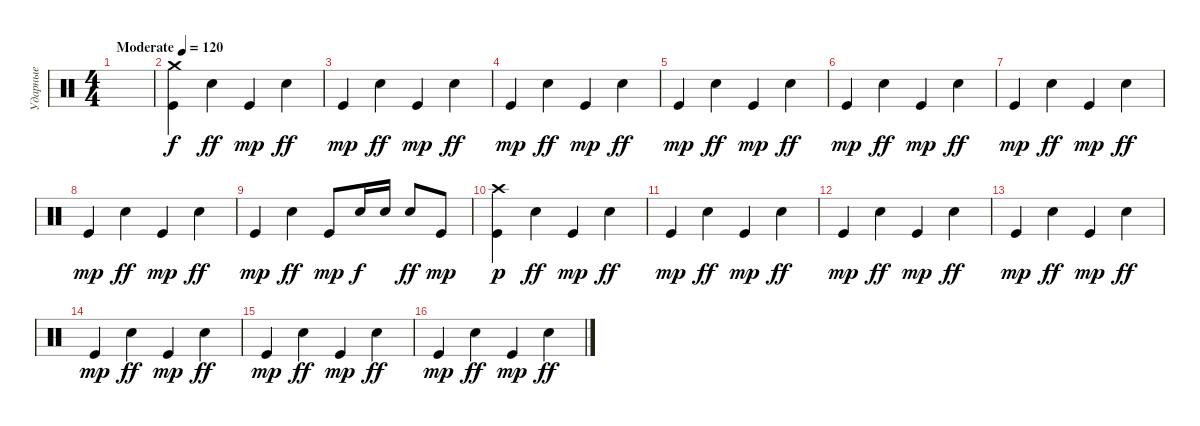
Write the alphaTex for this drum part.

\track ("Ударные" "Ударные") {instrument percussion}
\staff {score}
\articulation defaults
\ts (4 4)
\tempo (120 "Moderate")
\clef neutral
\ks c
|
("Kick (hit)" "Crash medium (hit)").4 "Snare (hit) 2".4{dy ff} "Kick (hit)".4{dy mp} "Snare (hit) 2".4{dy ff} |
"Kick (hit)".4{dy mp} "Snare (hit) 2".4{dy ff} "Kick (hit)".4{dy mp} "Snare (hit) 2".4{dy ff} |
"Kick (hit)".4{dy mp} "Snare (hit) 2".4{dy ff} "Kick (hit)".4{dy mp} "Snare (hit) 2".4{dy ff} |
"Kick (hit)".4{dy mp} "Snare (hit) 2".4{dy ff} "Kick (hit)".4{dy mp} "Snare (hit) 2".4{dy ff} |
"Kick (hit)".4{dy mp} "Snare (hit) 2".4{dy ff} "Kick (hit)".4{dy mp} "Snare (hit) 2".4{dy ff} |
"Kick (hit)".4{dy mp} "Snare (hit) 2".4{dy ff} "Kick (hit)".4{dy mp} "Snare (hit) 2".4{dy ff} |
"Kick (hit)".4{dy mp} "Snare (hit) 2".4{dy ff} "Kick (hit)".4{dy mp} "Snare (hit) 2".4{dy ff} |
"Kick (hit)".4{dy mp} "Snare (hit) 2".4{dy ff} "Kick (hit)".8{dy mp} "Snare (hit) 2".16{dy f} "Snare (hit) 2".16 "Snare (hit) 2".8{dy ff} "Kick (hit)".8{dy mp} |
("Kick (hit)" "Crash high (hit)").4{dy p} "Snare (hit) 2".4{dy ff} "Kick (hit)".4{dy mp} "Snare (hit) 2".4{dy ff} |
"Kick (hit)".4{dy mp} "Snare (hit) 2".4{dy ff} "Kick (hit)".4{dy mp} "Snare (hit) 2".4{dy ff} |
"Kick (hit)".4{dy mp} "Snare (hit) 2".4{dy ff} "Kick (hit)".4{dy mp} "Snare (hit) 2".4{dy ff} |
"Kick (hit)".4{dy mp} "Snare (hit) 2".4{dy ff} "Kick (hit)".4{dy mp} "Snare (hit) 2".4{dy ff} |
"Kick (hit)".4{dy mp} "Snare (hit) 2".4{dy ff} "Kick (hit)".4{dy mp} "Snare (hit) 2".4{dy ff} |
"Kick (hit)".4{dy mp} "Snare (hit) 2".4{dy ff} "Kick (hit)".4{dy mp} "Snare (hit) 2".4{dy ff} |
"Kick (hit)".4{dy mp} "Snare (hit) 2".4{dy ff} "Kick (hit)".4{dy mp} "Snare (hit) 2".4{dy ff}
